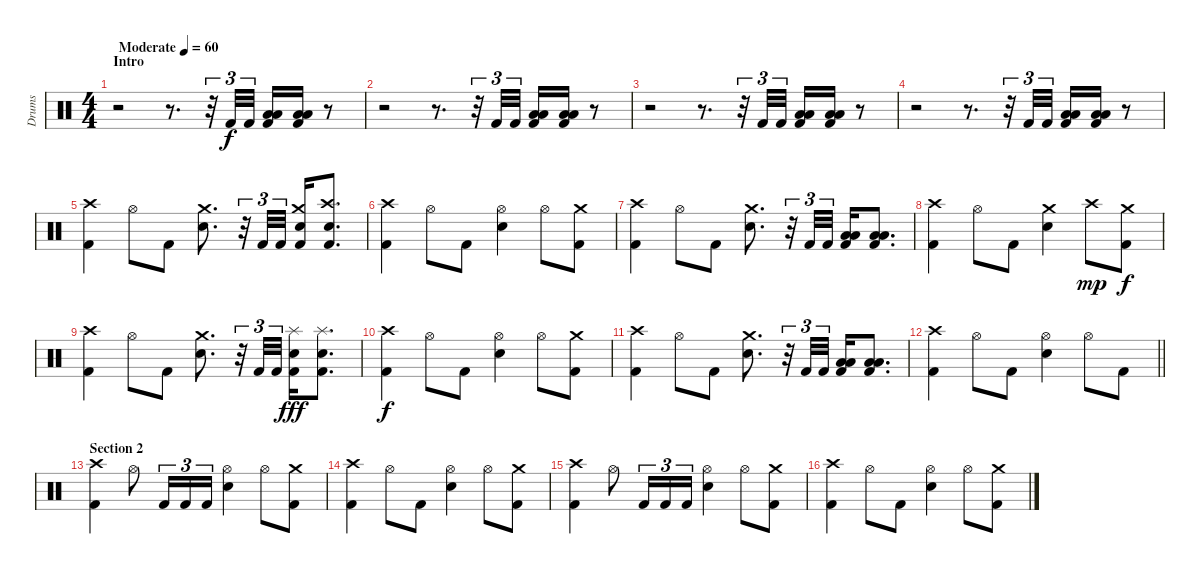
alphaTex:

\track ("Drums" "Drums") {instrument percussion}
\staff {score}
\articulation defaults
\ts (4 4)
\section ("" "Intro")
\tempo (60 "Moderate")
\clef neutral
\ks c
r.2{dy f} r.8{d} r.32{tu (3 2)} "Kick (hit) 2".32{tu (3 2)} "Kick (hit) 2".32{tu (3 2)} ("Low Tom (hit)" "Low Floor Tom (hit)" "Kick (hit) 2").16 ("Low Tom (hit)" "Low Floor Tom (hit)" "Kick (hit) 2").16 r.8 |
r.2 r.8{d} r.32{tu (3 2)} "Kick (hit) 2".32{tu (3 2)} "Kick (hit) 2".32{tu (3 2)} ("Low Tom (hit)" "Low Floor Tom (hit)" "Kick (hit) 2").16 ("Low Tom (hit)" "Low Floor Tom (hit)" "Kick (hit) 2").16 r.8 |
r.2 r.8{d} r.32{tu (3 2)} "Kick (hit) 2".32{tu (3 2)} "Kick (hit) 2".32{tu (3 2)} ("Low Tom (hit)" "Low Floor Tom (hit)" "Kick (hit) 2").16 ("Low Tom (hit)" "Low Floor Tom (hit)" "Kick (hit) 2").16 r.8 |
r.2 r.8{d} r.32{tu (3 2)} "Kick (hit) 2".32{tu (3 2)} "Kick (hit) 2".32{tu (3 2)} ("Low Tom (hit)" "Low Floor Tom (hit)" "Kick (hit) 2").16 ("Low Tom (hit)" "Low Floor Tom (hit)" "Kick (hit) 2").16 r.8 |
("Crash high (hit)" "Kick (hit) 2").4 "Hi-Hat (open)".8 "Kick (hit) 2".8 ("Crash medium (hit)" "Electric Snare (hit)").8{d} r.32{tu (3 2)} "Kick (hit) 2".32{tu (3 2)} "Kick (hit) 2".32{tu (3 2)} ("Crash medium (hit)" "Electric Snare (hit)" "Kick (hit) 2").16 ("Crash high (hit)" "Electric Snare (hit)" "Kick (hit) 2").8{d} |
("Crash high (hit)" "Kick (hit) 2").4 "Hi-Hat (open)".8 "Kick (hit) 2".8 ("Hi-Hat (open)" "Electric Snare (hit)").4 "Hi-Hat (open)".8 ("Crash medium (hit)" "Kick (hit) 2").8 |
("Crash high (hit)" "Kick (hit) 2").4 "Hi-Hat (open)".8 "Kick (hit) 2".8 ("Crash medium (hit)" "Electric Snare (hit)").8{d} r.32{tu (3 2)} "Kick (hit) 2".32{tu (3 2)} "Kick (hit) 2".32{tu (3 2)} ("Low Tom (hit)" "Low Floor Tom (hit)" "Kick (hit) 2").16 ("Low Tom (hit)" "Low Floor Tom (hit)" "Kick (hit) 2").8{d} |
("Crash high (hit)" "Kick (hit) 2").4 "Hi-Hat (open)".8 "Kick (hit) 2".8 ("Crash medium (hit)" "Electric Snare (hit)").4 "Crash high (hit)".8{dy mp} ("Crash medium (hit)" "Kick (hit) 2").8{dy f} |
("Crash high (hit)" "Kick (hit) 2").4 "Hi-Hat (open)".8 "Kick (hit) 2".8 ("Crash medium (hit)" "Electric Snare (hit)").8{d} r.32{tu (3 2)} "Kick (hit) 2".32{tu (3 2)} "Kick (hit) 2".32{tu (3 2)} ("Splash (hit)" "Electric Snare (hit)" "Kick (hit) 2").16{dy fff} ("Splash (hit)" "Electric Snare (hit)" "Kick (hit) 2").8{d} |
("Crash high (hit)" "Kick (hit) 2").4{dy f} "Hi-Hat (open)".8 "Kick (hit) 2".8 ("Hi-Hat (open)" "Electric Snare (hit)").4 "Hi-Hat (open)".8 ("Crash medium (hit)" "Kick (hit) 2").8 |
("Crash high (hit)" "Kick (hit) 2").4 "Hi-Hat (open)".8 "Kick (hit) 2".8 ("Crash medium (hit)" "Electric Snare (hit)").8{d} r.32{tu (3 2)} "Kick (hit) 2".32{tu (3 2)} "Kick (hit) 2".32{tu (3 2)} ("Low Tom (hit)" "Low Floor Tom (hit)" "Kick (hit) 2").16 ("Low Tom (hit)" "Low Floor Tom (hit)" "Kick (hit) 2").8{d} |
\barLineRight lightlight
("Crash high (hit)" "Kick (hit) 2").4 "Hi-Hat (open)".8 "Kick (hit) 2".8 ("Hi-Hat (open)" "Electric Snare (hit)").4 "Hi-Hat (open)".8 "Kick (hit) 2".8 |
\section ("" "Section 2")
("Crash high (hit)" "Kick (hit) 2").4 "Hi-Hat (open)".8 "Kick (hit) 2".16{tu (3 2)} "Kick (hit) 2".16{tu (3 2)} "Kick (hit) 2".16{tu (3 2)} ("Hi-Hat (open)" "Electric Snare (hit)").4 "Hi-Hat (open)".8 ("Crash medium (hit)" "Kick (hit) 2").8 |
("Crash high (hit)" "Kick (hit) 2").4 "Hi-Hat (open)".8 "Kick (hit) 2".8 ("Hi-Hat (open)" "Electric Snare (hit)").4 "Hi-Hat (open)".8 ("Crash medium (hit)" "Kick (hit) 2").8 |
("Crash high (hit)" "Kick (hit) 2").4 "Hi-Hat (open)".8 "Kick (hit) 2".16{tu (3 2)} "Kick (hit) 2".16{tu (3 2)} "Kick (hit) 2".16{tu (3 2)} ("Hi-Hat (open)" "Electric Snare (hit)").4 "Hi-Hat (open)".8 ("Crash medium (hit)" "Kick (hit) 2").8 |
("Crash high (hit)" "Kick (hit) 2").4 "Hi-Hat (open)".8 "Kick (hit) 2".8 ("Hi-Hat (open)" "Electric Snare (hit)").4 "Hi-Hat (open)".8 ("Crash medium (hit)" "Kick (hit) 2").8
